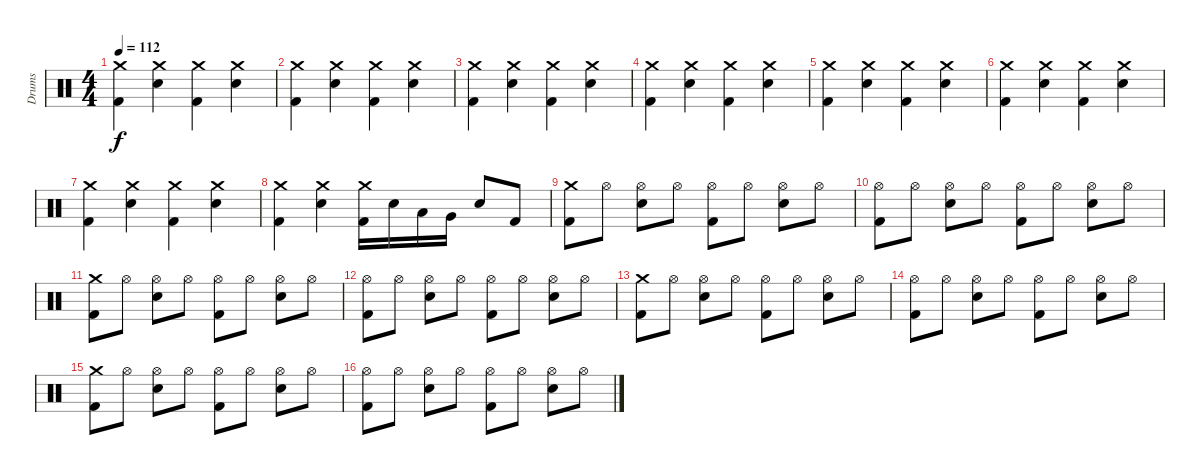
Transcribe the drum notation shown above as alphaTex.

\track ("Drums" "Drums") {instrument percussion}
\staff {score}
\articulation defaults
\ts (4 4)
\tempo 112
\clef neutral
\ks c
("Crash medium (hit)" "Kick (hit) 2").4{dy f} ("Crash medium (hit)" "Electric Snare (hit)").4 ("Crash medium (hit)" "Kick (hit) 2").4 ("Crash medium (hit)" "Electric Snare (hit)").4 |
("Crash medium (hit)" "Kick (hit) 2").4 ("Crash medium (hit)" "Electric Snare (hit)").4 ("Crash medium (hit)" "Kick (hit) 2").4 ("Crash medium (hit)" "Electric Snare (hit)").4 |
("Crash medium (hit)" "Kick (hit) 2").4 ("Crash medium (hit)" "Electric Snare (hit)").4 ("Crash medium (hit)" "Kick (hit) 2").4 ("Crash medium (hit)" "Electric Snare (hit)").4 |
("Crash medium (hit)" "Kick (hit) 2").4 ("Crash medium (hit)" "Electric Snare (hit)").4 ("Crash medium (hit)" "Kick (hit) 2").4 ("Crash medium (hit)" "Electric Snare (hit)").4 |
("Crash medium (hit)" "Kick (hit) 2").4 ("Crash medium (hit)" "Electric Snare (hit)").4 ("Crash medium (hit)" "Kick (hit) 2").4 ("Crash medium (hit)" "Electric Snare (hit)").4 |
("Crash medium (hit)" "Kick (hit) 2").4 ("Crash medium (hit)" "Electric Snare (hit)").4 ("Crash medium (hit)" "Kick (hit) 2").4 ("Crash medium (hit)" "Electric Snare (hit)").4 |
("Crash medium (hit)" "Kick (hit) 2").4 ("Crash medium (hit)" "Electric Snare (hit)").4 ("Crash medium (hit)" "Kick (hit) 2").4 ("Crash medium (hit)" "Electric Snare (hit)").4 |
("Crash medium (hit)" "Kick (hit) 2").4 ("Crash medium (hit)" "Electric Snare (hit)").4 ("Crash medium (hit)" "Kick (hit) 2").16 "Electric Snare (hit)".16 "Low Tom (hit)".16 "Very Low Tom (hit)".16 "Electric Snare (hit)".8 "Kick (hit) 2".8 |
("Crash medium (hit)" "Kick (hit) 2").8 "Hi-Hat (open)".8 ("Hi-Hat (open)" "Electric Snare (hit)").8 "Hi-Hat (open)".8 ("Hi-Hat (open)" "Kick (hit) 2").8 "Hi-Hat (open)".8 ("Hi-Hat (open)" "Electric Snare (hit)").8 "Hi-Hat (open)".8 |
("Hi-Hat (open)" "Kick (hit) 2").8 "Hi-Hat (open)".8 ("Hi-Hat (open)" "Electric Snare (hit)").8 "Hi-Hat (open)".8 ("Hi-Hat (open)" "Kick (hit) 2").8 "Hi-Hat (open)".8 ("Hi-Hat (open)" "Electric Snare (hit)").8 "Hi-Hat (open)".8 |
("Crash medium (hit)" "Kick (hit) 2").8 "Hi-Hat (open)".8 ("Hi-Hat (open)" "Electric Snare (hit)").8 "Hi-Hat (open)".8 ("Hi-Hat (open)" "Kick (hit) 2").8 "Hi-Hat (open)".8 ("Hi-Hat (open)" "Electric Snare (hit)").8 "Hi-Hat (open)".8 |
("Hi-Hat (open)" "Kick (hit) 2").8 "Hi-Hat (open)".8 ("Hi-Hat (open)" "Electric Snare (hit)").8 "Hi-Hat (open)".8 ("Hi-Hat (open)" "Kick (hit) 2").8 "Hi-Hat (open)".8 ("Hi-Hat (open)" "Electric Snare (hit)").8 "Hi-Hat (open)".8 |
("Crash medium (hit)" "Kick (hit) 2").8 "Hi-Hat (open)".8 ("Hi-Hat (open)" "Electric Snare (hit)").8 "Hi-Hat (open)".8 ("Hi-Hat (open)" "Kick (hit) 2").8 "Hi-Hat (open)".8 ("Hi-Hat (open)" "Electric Snare (hit)").8 "Hi-Hat (open)".8 |
("Hi-Hat (open)" "Kick (hit) 2").8 "Hi-Hat (open)".8 ("Hi-Hat (open)" "Electric Snare (hit)").8 "Hi-Hat (open)".8 ("Hi-Hat (open)" "Kick (hit) 2").8 "Hi-Hat (open)".8 ("Hi-Hat (open)" "Electric Snare (hit)").8 "Hi-Hat (open)".8 |
("Crash medium (hit)" "Kick (hit) 2").8 "Hi-Hat (open)".8 ("Hi-Hat (open)" "Electric Snare (hit)").8 "Hi-Hat (open)".8 ("Hi-Hat (open)" "Kick (hit) 2").8 "Hi-Hat (open)".8 ("Hi-Hat (open)" "Electric Snare (hit)").8 "Hi-Hat (open)".8 |
("Hi-Hat (open)" "Kick (hit) 2").8 "Hi-Hat (open)".8 ("Hi-Hat (open)" "Electric Snare (hit)").8 "Hi-Hat (open)".8 ("Hi-Hat (open)" "Kick (hit) 2").8 "Hi-Hat (open)".8 ("Hi-Hat (open)" "Electric Snare (hit)").8 "Hi-Hat (open)".8
